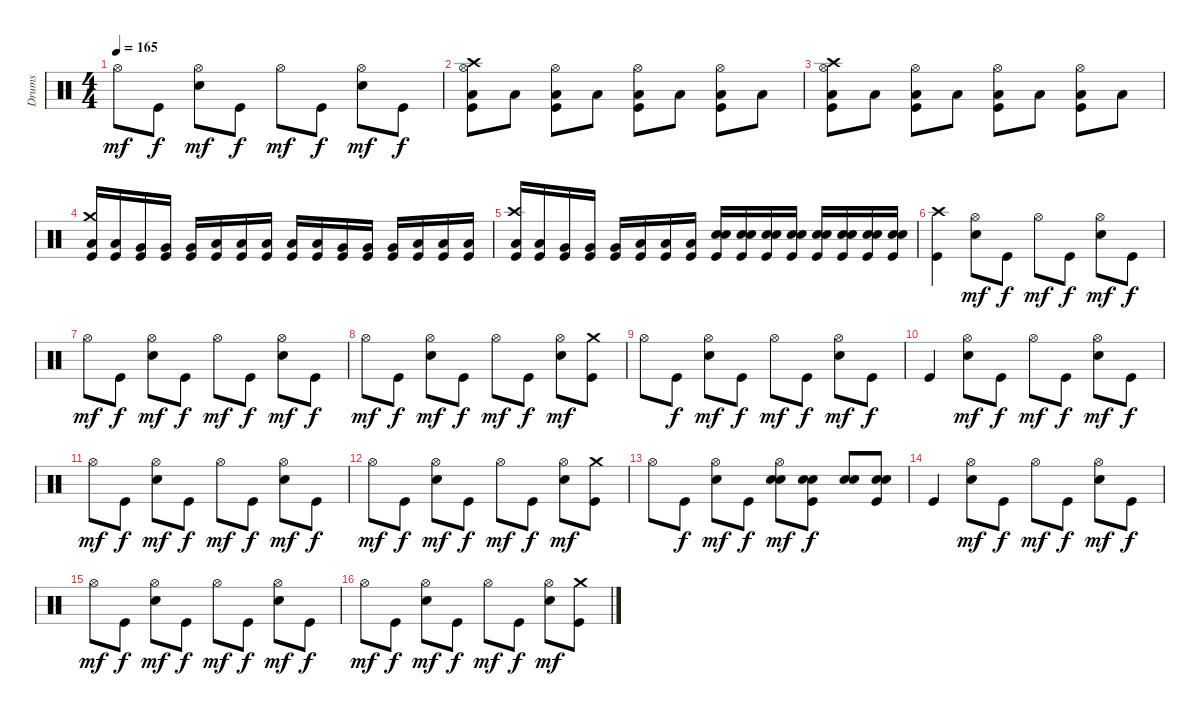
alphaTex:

\track ("Drums" "Drums") {instrument percussion}
\staff {score}
\articulation defaults
\ts (4 4)
\tempo 165
\clef neutral
\ks c "Hi-Hat (open)".8{dy mf} "Kick (hit)".8{dy f}
("Electric Snare (hit)" "Hi-Hat (open)").8{dy mf} "Kick (hit)".8{dy f} "Hi-Hat (open)".8{dy mf} "Kick (hit)".8{dy f} ("Electric Snare (hit)" "Hi-Hat (open)").8{dy mf} "Kick (hit)".8{dy f} |
("Crash high (hit)" "Hi-Hat (open)" "Low Floor Tom (hit)" "Kick (hit)").8 "Low Floor Tom (hit)".8 ("Hi-Hat (open)" "Low Floor Tom (hit)" "Kick (hit)").8 "Low Floor Tom (hit)".8 ("Hi-Hat (open)" "Low Floor Tom (hit)" "Kick (hit)").8 "Low Floor Tom (hit)".8 ("Hi-Hat (open)" "Low Floor Tom (hit)" "Kick (hit)").8 "Low Floor Tom (hit)".8 |
("Crash high (hit)" "Hi-Hat (open)" "Low Floor Tom (hit)" "Kick (hit)").8 "Low Floor Tom (hit)".8 ("Hi-Hat (open)" "Low Floor Tom (hit)" "Kick (hit)").8 "Low Floor Tom (hit)".8 ("Hi-Hat (open)" "Low Floor Tom (hit)" "Kick (hit)").8 "Low Floor Tom (hit)".8 ("Hi-Hat (open)" "Low Floor Tom (hit)" "Kick (hit)").8 "Low Floor Tom (hit)".8 |
("Crash medium (hit)" "Low Tom (hit)" "Kick (hit)").16 ("Low Tom (hit)" "Kick (hit)").16 ("Very Low Tom (hit)" "Kick (hit)").16 ("Very Low Tom (hit)" "Kick (hit)").16 ("Very Low Tom (hit)" "Kick (hit)").16 ("Low Floor Tom (hit)" "Kick (hit)").16 ("Low Floor Tom (hit)" "Kick (hit)").16 ("Low Floor Tom (hit)" "Kick (hit)").16 ("Low Tom (hit)" "Kick (hit)").16 ("Low Tom (hit)" "Kick (hit)").16 ("Very Low Tom (hit)" "Kick (hit)").16 ("Very Low Tom (hit)" "Kick (hit)").16 ("Very Low Tom (hit)" "Kick (hit)").16 ("Low Floor Tom (hit)" "Kick (hit)").16 ("Low Floor Tom (hit)" "Kick (hit)").16 ("Low Floor Tom (hit)" "Kick (hit)").16 |
("Crash high (hit)" "Low Tom (hit)" "Kick (hit)").16 ("Low Tom (hit)" "Kick (hit)").16 ("Very Low Tom (hit)" "Kick (hit)").16 ("Very Low Tom (hit)" "Kick (hit)").16 ("Very Low Tom (hit)" "Kick (hit)").16 ("Low Floor Tom (hit)" "Kick (hit)").16 ("Low Floor Tom (hit)" "Kick (hit)").16 ("Low Floor Tom (hit)" "Kick (hit)").16 ("Electric Snare (hit)" "Electric Snare (hit)" "Kick (hit)").16 ("Electric Snare (hit)" "Electric Snare (hit)" "Kick (hit)").16 ("Electric Snare (hit)" "Electric Snare (hit)" "Kick (hit)").16 ("Electric Snare (hit)" "Electric Snare (hit)" "Kick (hit)").16 ("Electric Snare (hit)" "Electric Snare (hit)" "Kick (hit)").16 ("Electric Snare (hit)" "Electric Snare (hit)" "Kick (hit)").16 ("Electric Snare (hit)" "Electric Snare (hit)" "Kick (hit)").16 ("Electric Snare (hit)" "Electric Snare (hit)" "Kick (hit)").16 |
("Kick (hit)" "Crash high (hit)").4 ("Electric Snare (hit)" "Hi-Hat (open)").8{dy mf} "Kick (hit)".8{dy f} "Hi-Hat (open)".8{dy mf} "Kick (hit)".8{dy f} ("Electric Snare (hit)" "Hi-Hat (open)").8{dy mf} "Kick (hit)".8{dy f} |
"Hi-Hat (open)".8{dy mf} "Kick (hit)".8{dy f} ("Electric Snare (hit)" "Hi-Hat (open)").8{dy mf} "Kick (hit)".8{dy f} "Hi-Hat (open)".8{dy mf} "Kick (hit)".8{dy f} ("Electric Snare (hit)" "Hi-Hat (open)").8{dy mf} "Kick (hit)".8{dy f} |
"Hi-Hat (open)".8{dy mf} "Kick (hit)".8{dy f} ("Electric Snare (hit)" "Hi-Hat (open)").8{dy mf} "Kick (hit)".8{dy f} "Hi-Hat (open)".8{dy mf} "Kick (hit)".8{dy f} ("Electric Snare (hit)" "Hi-Hat (open)").8{dy mf} ("Kick (hit)" "Crash medium (hit)").8 |
"Hi-Hat (open)".8 "Kick (hit)".8{dy f} ("Electric Snare (hit)" "Hi-Hat (open)").8{dy mf} "Kick (hit)".8{dy f} "Hi-Hat (open)".8{dy mf} "Kick (hit)".8{dy f} ("Electric Snare (hit)" "Hi-Hat (open)").8{dy mf} "Kick (hit)".8{dy f} |
"Kick (hit)".4 ("Electric Snare (hit)" "Hi-Hat (open)").8{dy mf} "Kick (hit)".8{dy f} "Hi-Hat (open)".8{dy mf} "Kick (hit)".8{dy f} ("Electric Snare (hit)" "Hi-Hat (open)").8{dy mf} "Kick (hit)".8{dy f} |
"Hi-Hat (open)".8{dy mf} "Kick (hit)".8{dy f} ("Electric Snare (hit)" "Hi-Hat (open)").8{dy mf} "Kick (hit)".8{dy f} "Hi-Hat (open)".8{dy mf} "Kick (hit)".8{dy f} ("Electric Snare (hit)" "Hi-Hat (open)").8{dy mf} "Kick (hit)".8{dy f} |
"Hi-Hat (open)".8{dy mf} "Kick (hit)".8{dy f} ("Electric Snare (hit)" "Hi-Hat (open)").8{dy mf} "Kick (hit)".8{dy f} "Hi-Hat (open)".8{dy mf} "Kick (hit)".8{dy f} ("Electric Snare (hit)" "Hi-Hat (open)").8{dy mf} ("Kick (hit)" "Crash medium (hit)").8 |
"Hi-Hat (open)".8 "Kick (hit)".8{dy f} ("Electric Snare (hit)" "Hi-Hat (open)").8{dy mf} "Kick (hit)".8{dy f} ("Electric Snare (hit)" "Electric Snare (hit)" "Hi-Hat (open)").8{dy mf} ("Kick (hit)" "Electric Snare (hit)" "Electric Snare (hit)").8{dy f} ("Electric Snare (hit)" "Electric Snare (hit)").8 ("Kick (hit)" "Electric Snare (hit)" "Electric Snare (hit)").8 |
"Kick (hit)".4 ("Electric Snare (hit)" "Hi-Hat (open)").8{dy mf} "Kick (hit)".8{dy f} "Hi-Hat (open)".8{dy mf} "Kick (hit)".8{dy f} ("Electric Snare (hit)" "Hi-Hat (open)").8{dy mf} "Kick (hit)".8{dy f} |
"Hi-Hat (open)".8{dy mf} "Kick (hit)".8{dy f} ("Electric Snare (hit)" "Hi-Hat (open)").8{dy mf} "Kick (hit)".8{dy f} "Hi-Hat (open)".8{dy mf} "Kick (hit)".8{dy f} ("Electric Snare (hit)" "Hi-Hat (open)").8{dy mf} "Kick (hit)".8{dy f} |
"Hi-Hat (open)".8{dy mf} "Kick (hit)".8{dy f} ("Electric Snare (hit)" "Hi-Hat (open)").8{dy mf} "Kick (hit)".8{dy f} "Hi-Hat (open)".8{dy mf} "Kick (hit)".8{dy f} ("Electric Snare (hit)" "Hi-Hat (open)").8{dy mf} ("Kick (hit)" "Crash medium (hit)").8
